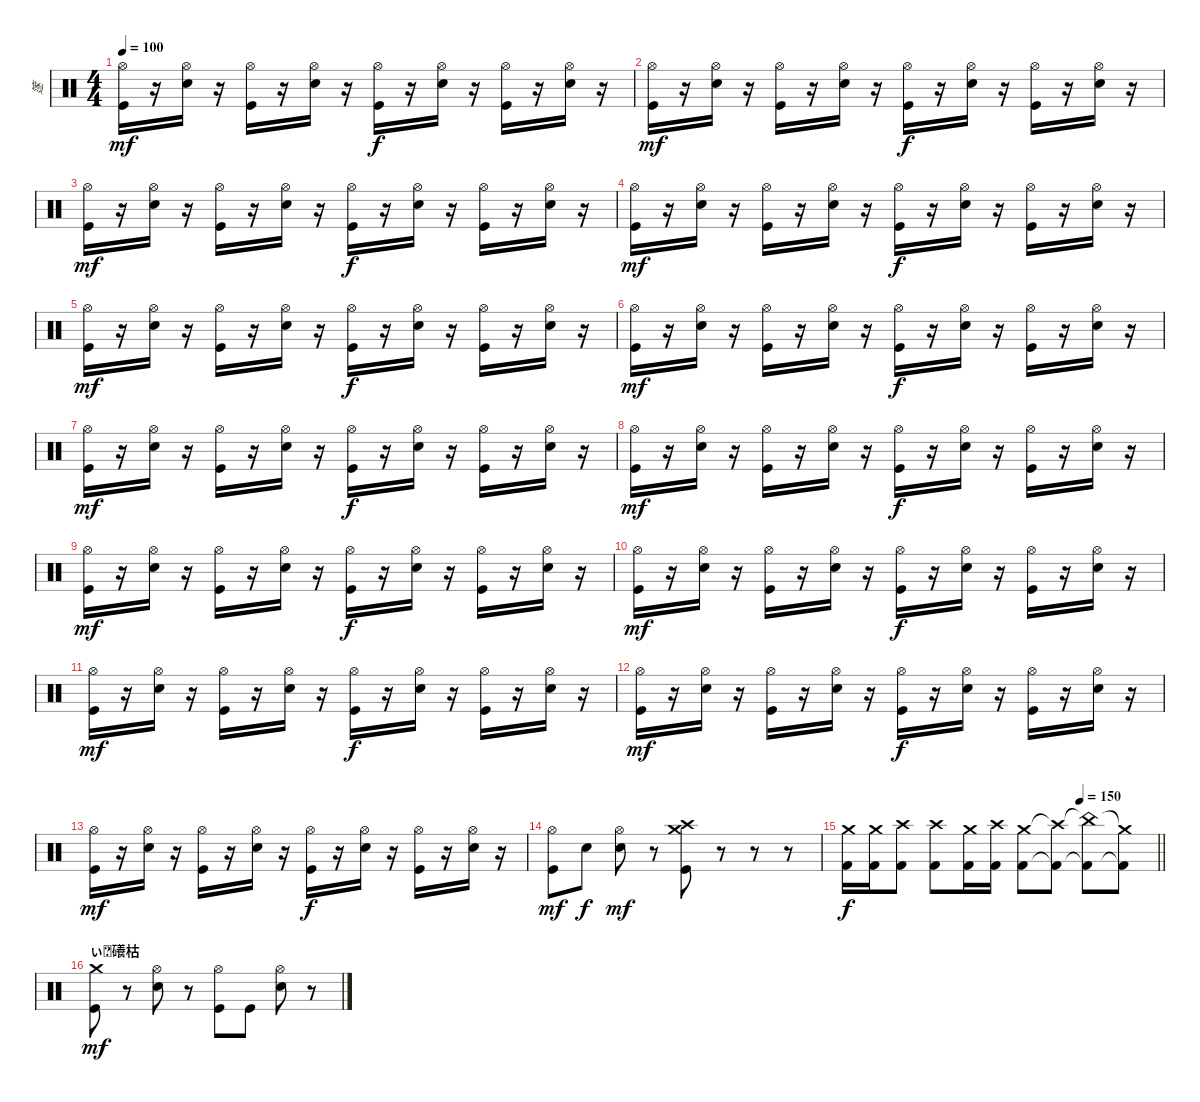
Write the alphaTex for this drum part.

\track ("篴" "篴") {instrument percussion}
\staff {score}
\articulation defaults
\ts (4 4)
\tempo 100
\clef neutral
\ks c
("Hi-Hat (open)" "Kick (hit)").16{dy mf} r.16 ("Hi-Hat (open)" "Snare (hit) 2").16 r.16 ("Hi-Hat (open)" "Kick (hit)").16 r.16 ("Hi-Hat (open)" "Snare (hit) 2").16 r.16 ("Hi-Hat (open)" "Kick (hit)").16{dy f} r.16 ("Hi-Hat (open)" "Snare (hit) 2").16 r.16 ("Hi-Hat (open)" "Kick (hit)").16 r.16 ("Hi-Hat (open)" "Snare (hit) 2").16 r.16 |
("Hi-Hat (open)" "Kick (hit)").16{dy mf} r.16 ("Hi-Hat (open)" "Snare (hit) 2").16 r.16 ("Hi-Hat (open)" "Kick (hit)").16 r.16 ("Hi-Hat (open)" "Snare (hit) 2").16 r.16 ("Hi-Hat (open)" "Kick (hit)").16{dy f} r.16 ("Hi-Hat (open)" "Snare (hit) 2").16 r.16 ("Hi-Hat (open)" "Kick (hit)").16 r.16 ("Hi-Hat (open)" "Snare (hit) 2").16 r.16 |
("Hi-Hat (open)" "Kick (hit)").16{dy mf} r.16 ("Hi-Hat (open)" "Snare (hit) 2").16 r.16 ("Hi-Hat (open)" "Kick (hit)").16 r.16 ("Hi-Hat (open)" "Snare (hit) 2").16 r.16 ("Hi-Hat (open)" "Kick (hit)").16{dy f} r.16 ("Hi-Hat (open)" "Snare (hit) 2").16 r.16 ("Hi-Hat (open)" "Kick (hit)").16 r.16 ("Hi-Hat (open)" "Snare (hit) 2").16 r.16 |
("Hi-Hat (open)" "Kick (hit)").16{dy mf} r.16 ("Hi-Hat (open)" "Snare (hit) 2").16 r.16 ("Hi-Hat (open)" "Kick (hit)").16 r.16 ("Hi-Hat (open)" "Snare (hit) 2").16 r.16 ("Hi-Hat (open)" "Kick (hit)").16{dy f} r.16 ("Hi-Hat (open)" "Snare (hit) 2").16 r.16 ("Hi-Hat (open)" "Kick (hit)").16 r.16 ("Hi-Hat (open)" "Snare (hit) 2").16 r.16 |
("Hi-Hat (open)" "Kick (hit)").16{dy mf} r.16 ("Hi-Hat (open)" "Snare (hit) 2").16 r.16 ("Hi-Hat (open)" "Kick (hit)").16 r.16 ("Hi-Hat (open)" "Snare (hit) 2").16 r.16 ("Hi-Hat (open)" "Kick (hit)").16{dy f} r.16 ("Hi-Hat (open)" "Snare (hit) 2").16 r.16 ("Hi-Hat (open)" "Kick (hit)").16 r.16 ("Hi-Hat (open)" "Snare (hit) 2").16 r.16 |
("Hi-Hat (open)" "Kick (hit)").16{dy mf} r.16 ("Hi-Hat (open)" "Snare (hit) 2").16 r.16 ("Hi-Hat (open)" "Kick (hit)").16 r.16 ("Hi-Hat (open)" "Snare (hit) 2").16 r.16 ("Hi-Hat (open)" "Kick (hit)").16{dy f} r.16 ("Hi-Hat (open)" "Snare (hit) 2").16 r.16 ("Hi-Hat (open)" "Kick (hit)").16 r.16 ("Hi-Hat (open)" "Snare (hit) 2").16 r.16 |
("Hi-Hat (open)" "Kick (hit)").16{dy mf} r.16 ("Hi-Hat (open)" "Snare (hit) 2").16 r.16 ("Hi-Hat (open)" "Kick (hit)").16 r.16 ("Hi-Hat (open)" "Snare (hit) 2").16 r.16 ("Hi-Hat (open)" "Kick (hit)").16{dy f} r.16 ("Hi-Hat (open)" "Snare (hit) 2").16 r.16 ("Hi-Hat (open)" "Kick (hit)").16 r.16 ("Hi-Hat (open)" "Snare (hit) 2").16 r.16 |
("Hi-Hat (open)" "Kick (hit)").16{dy mf} r.16 ("Hi-Hat (open)" "Snare (hit) 2").16 r.16 ("Hi-Hat (open)" "Kick (hit)").16 r.16 ("Hi-Hat (open)" "Snare (hit) 2").16 r.16 ("Hi-Hat (open)" "Kick (hit)").16{dy f} r.16 ("Hi-Hat (open)" "Snare (hit) 2").16 r.16 ("Hi-Hat (open)" "Kick (hit)").16 r.16 ("Hi-Hat (open)" "Snare (hit) 2").16 r.16 |
("Hi-Hat (open)" "Kick (hit)").16{dy mf} r.16 ("Hi-Hat (open)" "Snare (hit) 2").16 r.16 ("Hi-Hat (open)" "Kick (hit)").16 r.16 ("Hi-Hat (open)" "Snare (hit) 2").16 r.16 ("Hi-Hat (open)" "Kick (hit)").16{dy f} r.16 ("Hi-Hat (open)" "Snare (hit) 2").16 r.16 ("Hi-Hat (open)" "Kick (hit)").16 r.16 ("Hi-Hat (open)" "Snare (hit) 2").16 r.16 |
("Hi-Hat (open)" "Kick (hit)").16{dy mf} r.16 ("Hi-Hat (open)" "Snare (hit) 2").16 r.16 ("Hi-Hat (open)" "Kick (hit)").16 r.16 ("Hi-Hat (open)" "Snare (hit) 2").16 r.16 ("Hi-Hat (open)" "Kick (hit)").16{dy f} r.16 ("Hi-Hat (open)" "Snare (hit) 2").16 r.16 ("Hi-Hat (open)" "Kick (hit)").16 r.16 ("Hi-Hat (open)" "Snare (hit) 2").16 r.16 |
("Hi-Hat (open)" "Kick (hit)").16{dy mf} r.16 ("Hi-Hat (open)" "Snare (hit) 2").16 r.16 ("Hi-Hat (open)" "Kick (hit)").16 r.16 ("Hi-Hat (open)" "Snare (hit) 2").16 r.16 ("Hi-Hat (open)" "Kick (hit)").16{dy f} r.16 ("Hi-Hat (open)" "Snare (hit) 2").16 r.16 ("Hi-Hat (open)" "Kick (hit)").16 r.16 ("Hi-Hat (open)" "Snare (hit) 2").16 r.16 |
("Hi-Hat (open)" "Kick (hit)").16{dy mf} r.16 ("Hi-Hat (open)" "Snare (hit) 2").16 r.16 ("Hi-Hat (open)" "Kick (hit)").16 r.16 ("Hi-Hat (open)" "Snare (hit) 2").16 r.16 ("Hi-Hat (open)" "Kick (hit)").16{dy f} r.16 ("Hi-Hat (open)" "Snare (hit) 2").16 r.16 ("Hi-Hat (open)" "Kick (hit)").16 r.16 ("Hi-Hat (open)" "Snare (hit) 2").16 r.16 |
("Hi-Hat (open)" "Kick (hit)").16{dy mf} r.16 ("Hi-Hat (open)" "Snare (hit) 2").16 r.16 ("Hi-Hat (open)" "Kick (hit)").16 r.16 ("Hi-Hat (open)" "Snare (hit) 2").16 r.16 ("Hi-Hat (open)" "Kick (hit)").16{dy f} r.16 ("Hi-Hat (open)" "Snare (hit) 2").16 r.16 ("Hi-Hat (open)" "Kick (hit)").16 r.16 ("Hi-Hat (open)" "Snare (hit) 2").16 r.16 |
("Hi-Hat (open)" "Kick (hit)").8{dy mf} "Snare (hit) 2".8{dy f} ("Hi-Hat (open)" "Snare (hit) 2").8{dy mf} r.8 ("Crash medium (hit)" "Crash high (hit)" "Kick (hit)").8 r.8 r.8 r.8 |
\tempo (150 0.75)
\barLineRight lightlight
("Crash medium (hit)" "Kick (hit) 2").16{dy f} ("Crash medium (hit)" "Kick (hit) 2").16 ("Crash high (hit)" "Kick (hit) 2").8 ("Crash high (hit)" "Kick (hit) 2").8 ("Crash medium (hit)" "Kick (hit) 2").16 ("Crash high (hit)" "Kick (hit) 2").16 ("Crash medium (hit)" "Kick (hit) 2").8 ("Crash high (hit)"{t} "Kick (hit) 2"{t}).8 ("China (hit)"{t} "Kick (hit) 2"{t}).8 ("Crash medium (hit)"{t} "Kick (hit) 2"{t}).8 |
\section ("" "ぃ礢枯")
("Crash medium (hit)" "Kick (hit)").8{dy mf} r.8 ("Hi-Hat (open)" "Snare (hit) 2").8 r.8 ("Hi-Hat (open)" "Kick (hit)").8 "Kick (hit)".8 ("Hi-Hat (open)" "Snare (hit) 2").8 r.8
